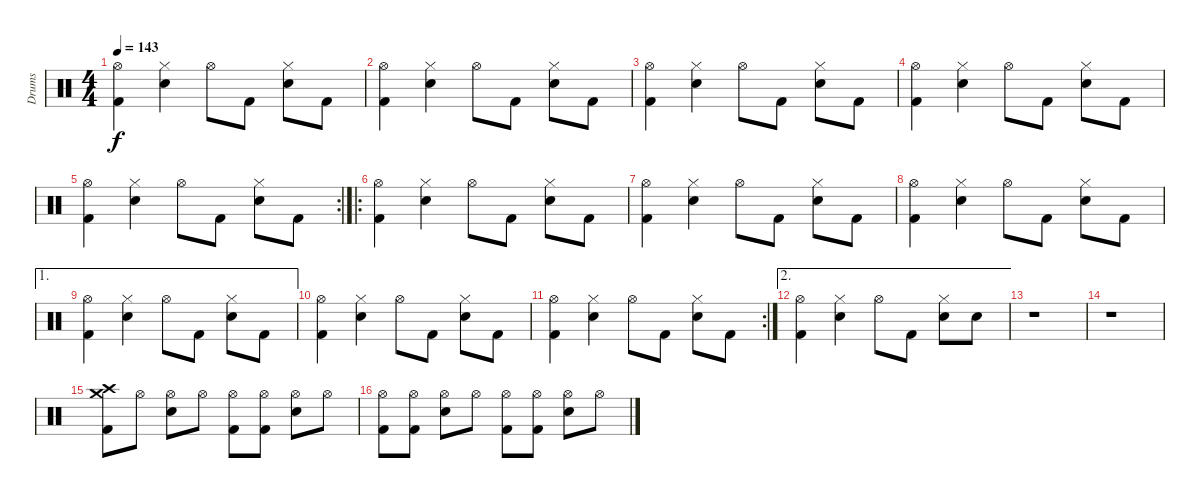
\track ("Drums" "Drums") {instrument percussion}
\staff {score}
\articulation defaults
\ts (4 4)
\tempo 143
\clef neutral
\ks c
("Hi-Hat (open)" "Kick (hit) 2").4{dy f} ("Hi-Hat (closed)" "Electric Snare (hit)").4 "Hi-Hat (open)".8 "Kick (hit) 2".8 ("Hi-Hat (closed)" "Electric Snare (hit)").8 "Kick (hit) 2".8 |
("Hi-Hat (open)" "Kick (hit) 2").4 ("Hi-Hat (closed)" "Electric Snare (hit)").4 "Hi-Hat (open)".8 "Kick (hit) 2".8 ("Hi-Hat (closed)" "Electric Snare (hit)").8 "Kick (hit) 2".8 |
("Hi-Hat (open)" "Kick (hit) 2").4 ("Hi-Hat (closed)" "Electric Snare (hit)").4 "Hi-Hat (open)".8 "Kick (hit) 2".8 ("Hi-Hat (closed)" "Electric Snare (hit)").8 "Kick (hit) 2".8 |
("Hi-Hat (open)" "Kick (hit) 2").4 ("Hi-Hat (closed)" "Electric Snare (hit)").4 "Hi-Hat (open)".8 "Kick (hit) 2".8 ("Hi-Hat (closed)" "Electric Snare (hit)").8 "Kick (hit) 2".8 |
\rc 2
("Hi-Hat (open)" "Kick (hit) 2").4 ("Hi-Hat (closed)" "Electric Snare (hit)").4 "Hi-Hat (open)".8 "Kick (hit) 2".8 ("Hi-Hat (closed)" "Electric Snare (hit)").8 "Kick (hit) 2".8 |
\ro
("Hi-Hat (open)" "Kick (hit) 2").4 ("Hi-Hat (closed)" "Electric Snare (hit)").4 "Hi-Hat (open)".8 "Kick (hit) 2".8 ("Hi-Hat (closed)" "Electric Snare (hit)").8 "Kick (hit) 2".8 |
("Hi-Hat (open)" "Kick (hit) 2").4 ("Hi-Hat (closed)" "Electric Snare (hit)").4 "Hi-Hat (open)".8 "Kick (hit) 2".8 ("Hi-Hat (closed)" "Electric Snare (hit)").8 "Kick (hit) 2".8 |
("Hi-Hat (open)" "Kick (hit) 2").4 ("Hi-Hat (closed)" "Electric Snare (hit)").4 "Hi-Hat (open)".8 "Kick (hit) 2".8 ("Hi-Hat (closed)" "Electric Snare (hit)").8 "Kick (hit) 2".8 |
\ae 1
("Hi-Hat (open)" "Kick (hit) 2").4 ("Hi-Hat (closed)" "Electric Snare (hit)").4 "Hi-Hat (open)".8 "Kick (hit) 2".8 ("Hi-Hat (closed)" "Electric Snare (hit)").8 "Kick (hit) 2".8 |
("Hi-Hat (open)" "Kick (hit) 2").4 ("Hi-Hat (closed)" "Electric Snare (hit)").4 "Hi-Hat (open)".8 "Kick (hit) 2".8 ("Hi-Hat (closed)" "Electric Snare (hit)").8 "Kick (hit) 2".8 |
\rc 2
("Hi-Hat (open)" "Kick (hit) 2").4 ("Hi-Hat (closed)" "Electric Snare (hit)").4 "Hi-Hat (open)".8 "Kick (hit) 2".8 ("Hi-Hat (closed)" "Electric Snare (hit)").8 "Kick (hit) 2".8 |
\ae 2
("Hi-Hat (open)" "Kick (hit) 2").4 ("Hi-Hat (closed)" "Electric Snare (hit)").4 "Hi-Hat (open)".8 "Kick (hit) 2".8 ("Hi-Hat (closed)" "Electric Snare (hit)").8 "Electric Snare (hit)".8 |
r.1 |
r.1 |
("Crash high (hit)" "Crash medium (hit)" "Kick (hit) 2").8 "Hi-Hat (open)".8 ("Hi-Hat (open)" "Snare (hit) 2").8 "Hi-Hat (open)".8 ("Hi-Hat (open)" "Kick (hit) 2").8 ("Hi-Hat (open)" "Kick (hit) 2").8 ("Hi-Hat (open)" "Snare (hit) 2").8 "Hi-Hat (open)".8 |
("Hi-Hat (open)" "Kick (hit) 2").8 ("Hi-Hat (open)" "Kick (hit) 2").8 ("Hi-Hat (open)" "Snare (hit) 2").8 "Hi-Hat (open)".8 ("Hi-Hat (open)" "Kick (hit) 2").8 ("Hi-Hat (open)" "Kick (hit) 2").8 ("Hi-Hat (open)" "Snare (hit) 2").8 "Hi-Hat (open)".8
